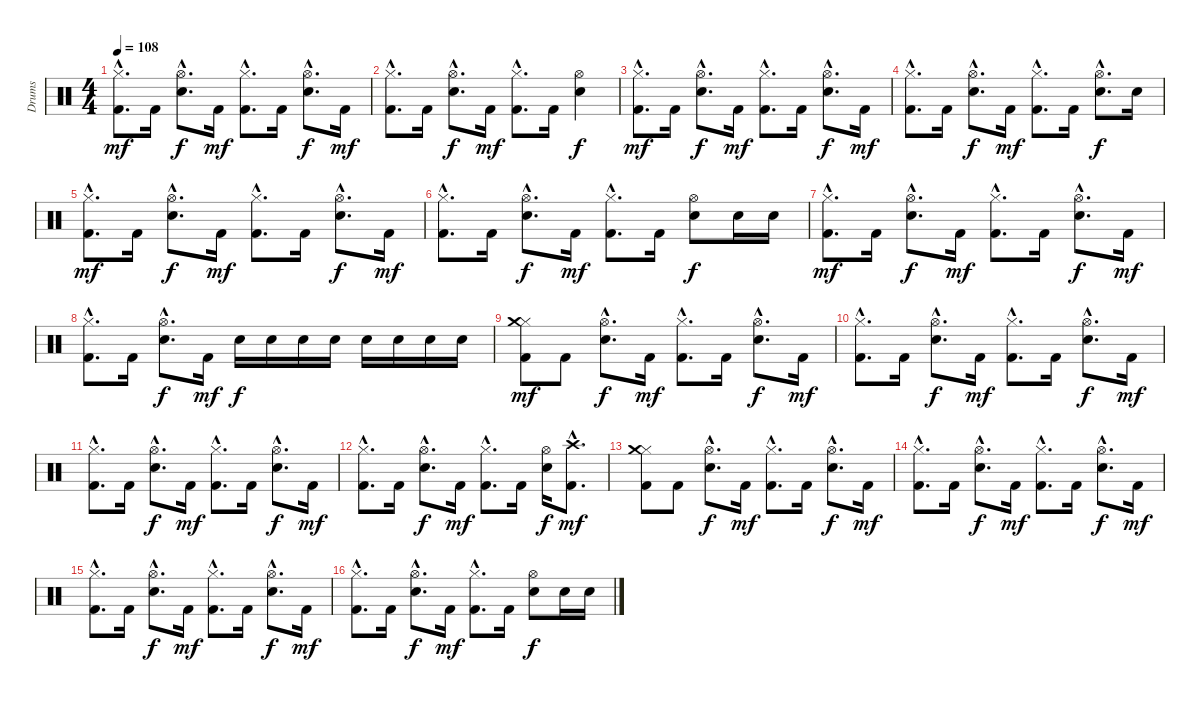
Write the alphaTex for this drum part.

\track ("Drums" "Drums") {instrument percussion}
\staff {score}
\articulation defaults
\ts (4 4)
\tempo 108
\clef neutral
\ks c
("Kick (hit) 2"{hac} "Hi-Hat (closed)"{hac}).8{d dy mf} "Kick (hit) 2".16 ("Snare (hit) 2"{hac} "Hi-Hat (open)"{hac}).8{d dy f} "Kick (hit) 2".16{dy mf} ("Kick (hit) 2"{hac} "Hi-Hat (closed)"{hac}).8{d} "Kick (hit) 2".16 ("Snare (hit) 2"{hac} "Hi-Hat (open)"{hac}).8{d dy f} "Kick (hit) 2".16{dy mf} |
("Kick (hit) 2"{hac} "Hi-Hat (closed)"{hac}).8{d} "Kick (hit) 2".16 ("Snare (hit) 2"{hac} "Hi-Hat (open)"{hac}).8{d dy f} "Kick (hit) 2".16{dy mf} ("Kick (hit) 2"{hac} "Hi-Hat (closed)"{hac}).8{d} "Kick (hit) 2".16 ("Snare (hit) 2" "Hi-Hat (open)").4{dy f} |
("Kick (hit) 2"{hac} "Hi-Hat (closed)"{hac}).8{d dy mf} "Kick (hit) 2".16 ("Snare (hit) 2"{hac} "Hi-Hat (open)"{hac}).8{d dy f} "Kick (hit) 2".16{dy mf} ("Kick (hit) 2"{hac} "Hi-Hat (closed)"{hac}).8{d} "Kick (hit) 2".16 ("Snare (hit) 2"{hac} "Hi-Hat (open)"{hac}).8{d dy f} "Kick (hit) 2".16{dy mf} |
("Kick (hit) 2"{hac} "Hi-Hat (closed)"{hac}).8{d} "Kick (hit) 2".16 ("Snare (hit) 2"{hac} "Hi-Hat (open)"{hac}).8{d dy f} "Kick (hit) 2".16{dy mf} ("Kick (hit) 2"{hac} "Hi-Hat (closed)"{hac}).8{d} "Kick (hit) 2".16 ("Snare (hit) 2"{hac} "Hi-Hat (open)"{hac}).8{d dy f} "Snare (hit) 2".16 |
("Kick (hit) 2"{hac} "Hi-Hat (closed)"{hac}).8{d dy mf} "Kick (hit) 2".16 ("Snare (hit) 2"{hac} "Hi-Hat (open)"{hac}).8{d dy f} "Kick (hit) 2".16{dy mf} ("Kick (hit) 2"{hac} "Hi-Hat (closed)"{hac}).8{d} "Kick (hit) 2".16 ("Snare (hit) 2"{hac} "Hi-Hat (open)"{hac}).8{d dy f} "Kick (hit) 2".16{dy mf} |
("Kick (hit) 2"{hac} "Hi-Hat (closed)"{hac}).8{d} "Kick (hit) 2".16 ("Snare (hit) 2"{hac} "Hi-Hat (open)"{hac}).8{d dy f} "Kick (hit) 2".16{dy mf} ("Kick (hit) 2"{hac} "Hi-Hat (closed)"{hac}).8{d} "Kick (hit) 2".16 ("Snare (hit) 2" "Hi-Hat (open)").8{dy f} "Snare (hit) 2".16 "Snare (hit) 2".16 |
("Kick (hit) 2"{hac} "Hi-Hat (closed)"{hac}).8{d dy mf} "Kick (hit) 2".16 ("Snare (hit) 2"{hac} "Hi-Hat (open)"{hac}).8{d dy f} "Kick (hit) 2".16{dy mf} ("Kick (hit) 2"{hac} "Hi-Hat (closed)"{hac}).8{d} "Kick (hit) 2".16 ("Snare (hit) 2"{hac} "Hi-Hat (open)"{hac}).8{d dy f} "Kick (hit) 2".16{dy mf} |
("Kick (hit) 2"{hac} "Hi-Hat (closed)"{hac}).8{d} "Kick (hit) 2".16 ("Snare (hit) 2"{hac} "Hi-Hat (open)"{hac}).8{d dy f} "Kick (hit) 2".16{dy mf} "Snare (hit) 2".16{dy f} "Snare (hit) 2".16 "Snare (hit) 2".16 "Snare (hit) 2".16 "Snare (hit) 2".16 "Snare (hit) 2".16 "Snare (hit) 2".16 "Snare (hit) 2".16 |
("Kick (hit) 2" "Hi-Hat (closed)" "Crash medium (hit)").8{dy mf} "Kick (hit) 2".8 ("Snare (hit) 2"{hac} "Hi-Hat (open)"{hac}).8{d dy f} "Kick (hit) 2".16{dy mf} ("Kick (hit) 2"{hac} "Hi-Hat (closed)"{hac}).8{d} "Kick (hit) 2".16 ("Snare (hit) 2"{hac} "Hi-Hat (open)"{hac}).8{d dy f} "Kick (hit) 2".16{dy mf} |
("Kick (hit) 2"{hac} "Hi-Hat (closed)"{hac}).8{d} "Kick (hit) 2".16 ("Snare (hit) 2"{hac} "Hi-Hat (open)"{hac}).8{d dy f} "Kick (hit) 2".16{dy mf} ("Kick (hit) 2"{hac} "Hi-Hat (closed)"{hac}).8{d} "Kick (hit) 2".16 ("Snare (hit) 2"{hac} "Hi-Hat (open)"{hac}).8{d dy f} "Kick (hit) 2".16{dy mf} |
("Kick (hit) 2"{hac} "Hi-Hat (closed)"{hac}).8{d} "Kick (hit) 2".16 ("Snare (hit) 2"{hac} "Hi-Hat (open)"{hac}).8{d dy f} "Kick (hit) 2".16{dy mf} ("Kick (hit) 2"{hac} "Hi-Hat (closed)"{hac}).8{d} "Kick (hit) 2".16 ("Snare (hit) 2"{hac} "Hi-Hat (open)"{hac}).8{d dy f} "Kick (hit) 2".16{dy mf} |
("Kick (hit) 2"{hac} "Hi-Hat (closed)"{hac}).8{d} "Kick (hit) 2".16 ("Snare (hit) 2"{hac} "Hi-Hat (open)"{hac}).8{d dy f} "Kick (hit) 2".16{dy mf} ("Kick (hit) 2"{hac} "Hi-Hat (closed)"{hac}).8{d} "Kick (hit) 2".16 ("Snare (hit) 2" "Hi-Hat (open)").16{dy f} ("Kick (hit) 2"{hac} "Crash high (hit)"{hac}).8{d dy mf} |
("Kick (hit) 2" "Hi-Hat (closed)" "Crash medium (hit)").8 "Kick (hit) 2".8 ("Snare (hit) 2"{hac} "Hi-Hat (open)"{hac}).8{d dy f} "Kick (hit) 2".16{dy mf} ("Kick (hit) 2"{hac} "Hi-Hat (closed)"{hac}).8{d} "Kick (hit) 2".16 ("Snare (hit) 2"{hac} "Hi-Hat (open)"{hac}).8{d dy f} "Kick (hit) 2".16{dy mf} |
("Kick (hit) 2"{hac} "Hi-Hat (closed)"{hac}).8{d} "Kick (hit) 2".16 ("Snare (hit) 2"{hac} "Hi-Hat (open)"{hac}).8{d dy f} "Kick (hit) 2".16{dy mf} ("Kick (hit) 2"{hac} "Hi-Hat (closed)"{hac}).8{d} "Kick (hit) 2".16 ("Snare (hit) 2"{hac} "Hi-Hat (open)"{hac}).8{d dy f} "Kick (hit) 2".16{dy mf} |
("Kick (hit) 2"{hac} "Hi-Hat (closed)"{hac}).8{d} "Kick (hit) 2".16 ("Snare (hit) 2"{hac} "Hi-Hat (open)"{hac}).8{d dy f} "Kick (hit) 2".16{dy mf} ("Kick (hit) 2"{hac} "Hi-Hat (closed)"{hac}).8{d} "Kick (hit) 2".16 ("Snare (hit) 2"{hac} "Hi-Hat (open)"{hac}).8{d dy f} "Kick (hit) 2".16{dy mf} |
("Kick (hit) 2"{hac} "Hi-Hat (closed)"{hac}).8{d} "Kick (hit) 2".16 ("Snare (hit) 2"{hac} "Hi-Hat (open)"{hac}).8{d dy f} "Kick (hit) 2".16{dy mf} ("Kick (hit) 2"{hac} "Hi-Hat (closed)"{hac}).8{d} "Kick (hit) 2".16 ("Snare (hit) 2" "Hi-Hat (open)").8{dy f} "Snare (hit) 2".16 "Snare (hit) 2".16
